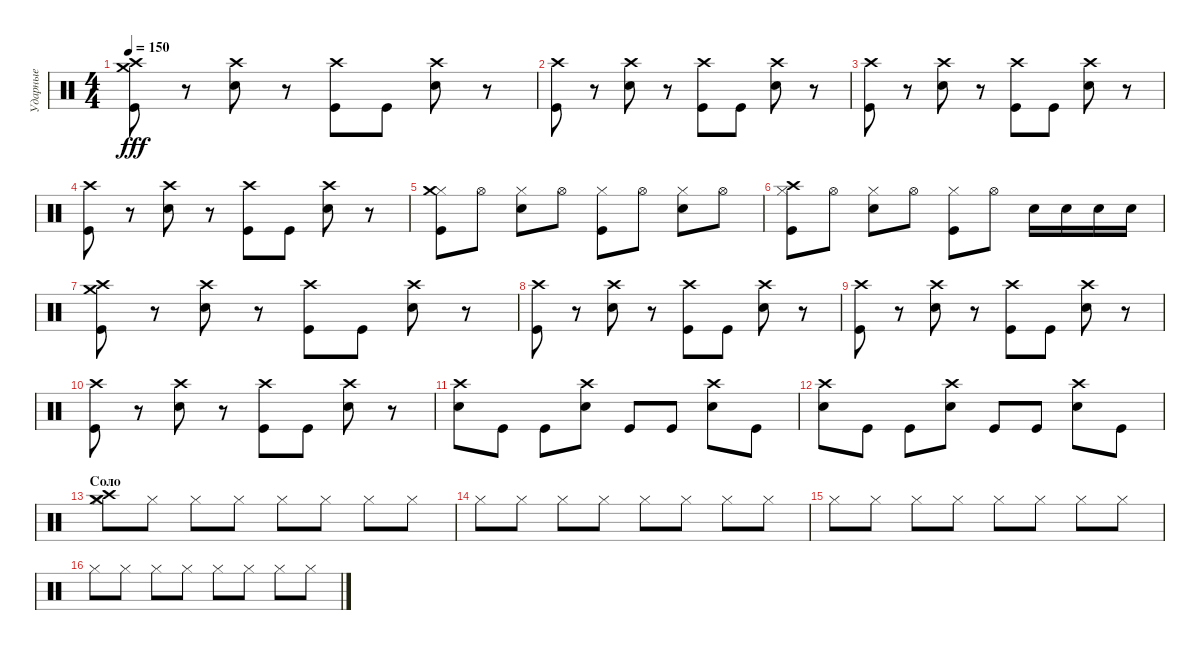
\track ("Ударные" "Ударные") {instrument percussion}
\staff {score}
\articulation defaults
\ts (4 4)
\tempo 150
\clef neutral
\ks c
("Crash high (hit)" "Kick (hit)" "Crash medium (hit)").8{dy fff} r.8 ("Crash high (hit)" "Electric Snare (hit)").8 r.8 ("Crash high (hit)" "Kick (hit)").8 "Kick (hit)".8 ("Crash high (hit)" "Electric Snare (hit)").8 r.8 |
("Crash high (hit)" "Kick (hit)").8 r.8 ("Crash high (hit)" "Electric Snare (hit)").8 r.8 ("Crash high (hit)" "Kick (hit)").8 "Kick (hit)".8 ("Crash high (hit)" "Electric Snare (hit)").8 r.8 |
("Crash high (hit)" "Kick (hit)").8 r.8 ("Crash high (hit)" "Electric Snare (hit)").8 r.8 ("Crash high (hit)" "Kick (hit)").8 "Kick (hit)".8 ("Crash high (hit)" "Electric Snare (hit)").8 r.8 |
("Crash high (hit)" "Kick (hit)").8 r.8 ("Crash high (hit)" "Electric Snare (hit)").8 r.8 ("Crash high (hit)" "Kick (hit)").8 "Kick (hit)".8 ("Crash high (hit)" "Electric Snare (hit)").8 r.8 |
("Hi-Hat (closed)" "Kick (hit)" "Crash medium (hit)").8 "Hi-Hat (open)".8 ("Hi-Hat (closed)" "Electric Snare (hit)").8 "Hi-Hat (open)".8 ("Hi-Hat (closed)" "Kick (hit)").8 "Hi-Hat (open)".8 ("Hi-Hat (closed)" "Electric Snare (hit)").8 "Hi-Hat (open)".8 |
("Hi-Hat (closed)" "Kick (hit)" "Crash high (hit)").8 "Hi-Hat (open)".8 ("Hi-Hat (closed)" "Electric Snare (hit)").8 "Hi-Hat (open)".8 ("Hi-Hat (closed)" "Kick (hit)").8 "Hi-Hat (open)".8 "Electric Snare (hit)".16 "Electric Snare (hit)".16 "Electric Snare (hit)".16 "Electric Snare (hit)".16 |
("Crash high (hit)" "Kick (hit)" "Crash medium (hit)").8 r.8 ("Crash high (hit)" "Electric Snare (hit)").8 r.8 ("Crash high (hit)" "Kick (hit)").8 "Kick (hit)".8 ("Crash high (hit)" "Electric Snare (hit)").8 r.8 |
("Crash high (hit)" "Kick (hit)").8 r.8 ("Crash high (hit)" "Electric Snare (hit)").8 r.8 ("Crash high (hit)" "Kick (hit)").8 "Kick (hit)".8 ("Crash high (hit)" "Electric Snare (hit)").8 r.8 |
("Crash high (hit)" "Kick (hit)").8 r.8 ("Crash high (hit)" "Electric Snare (hit)").8 r.8 ("Crash high (hit)" "Kick (hit)").8 "Kick (hit)".8 ("Crash high (hit)" "Electric Snare (hit)").8 r.8 |
("Crash high (hit)" "Kick (hit)").8 r.8 ("Crash high (hit)" "Electric Snare (hit)").8 r.8 ("Crash high (hit)" "Kick (hit)").8 "Kick (hit)".8 ("Crash high (hit)" "Electric Snare (hit)").8 r.8 |
("Electric Snare (hit)" "Crash high (hit)").8 "Kick (hit)".8 "Kick (hit)".8 ("Electric Snare (hit)" "Crash high (hit)").8 "Kick (hit)".8 "Kick (hit)".8 ("Electric Snare (hit)" "Crash high (hit)").8 "Kick (hit)".8 |
("Electric Snare (hit)" "Crash high (hit)").8 "Kick (hit)".8 "Kick (hit)".8 ("Electric Snare (hit)" "Crash high (hit)").8 "Kick (hit)".8 "Kick (hit)".8 ("Electric Snare (hit)" "Crash high (hit)").8 "Kick (hit)".8 |
\section ("" "Соло")
("Hi-Hat (closed)" "Crash medium (hit)" "Crash high (hit)").8 "Hi-Hat (closed)".8 "Hi-Hat (closed)".8 "Hi-Hat (closed)".8 "Hi-Hat (closed)".8 "Hi-Hat (closed)".8 "Hi-Hat (closed)".8 "Hi-Hat (closed)".8 |
"Hi-Hat (closed)".8 "Hi-Hat (closed)".8 "Hi-Hat (closed)".8 "Hi-Hat (closed)".8 "Hi-Hat (closed)".8 "Hi-Hat (closed)".8 "Hi-Hat (closed)".8 "Hi-Hat (closed)".8 |
"Hi-Hat (closed)".8 "Hi-Hat (closed)".8 "Hi-Hat (closed)".8 "Hi-Hat (closed)".8 "Hi-Hat (closed)".8 "Hi-Hat (closed)".8 "Hi-Hat (closed)".8 "Hi-Hat (closed)".8 |
"Hi-Hat (closed)".8 "Hi-Hat (closed)".8 "Hi-Hat (closed)".8 "Hi-Hat (closed)".8 "Hi-Hat (closed)".8 "Hi-Hat (closed)".8 "Hi-Hat (closed)".8 "Hi-Hat (closed)".8
